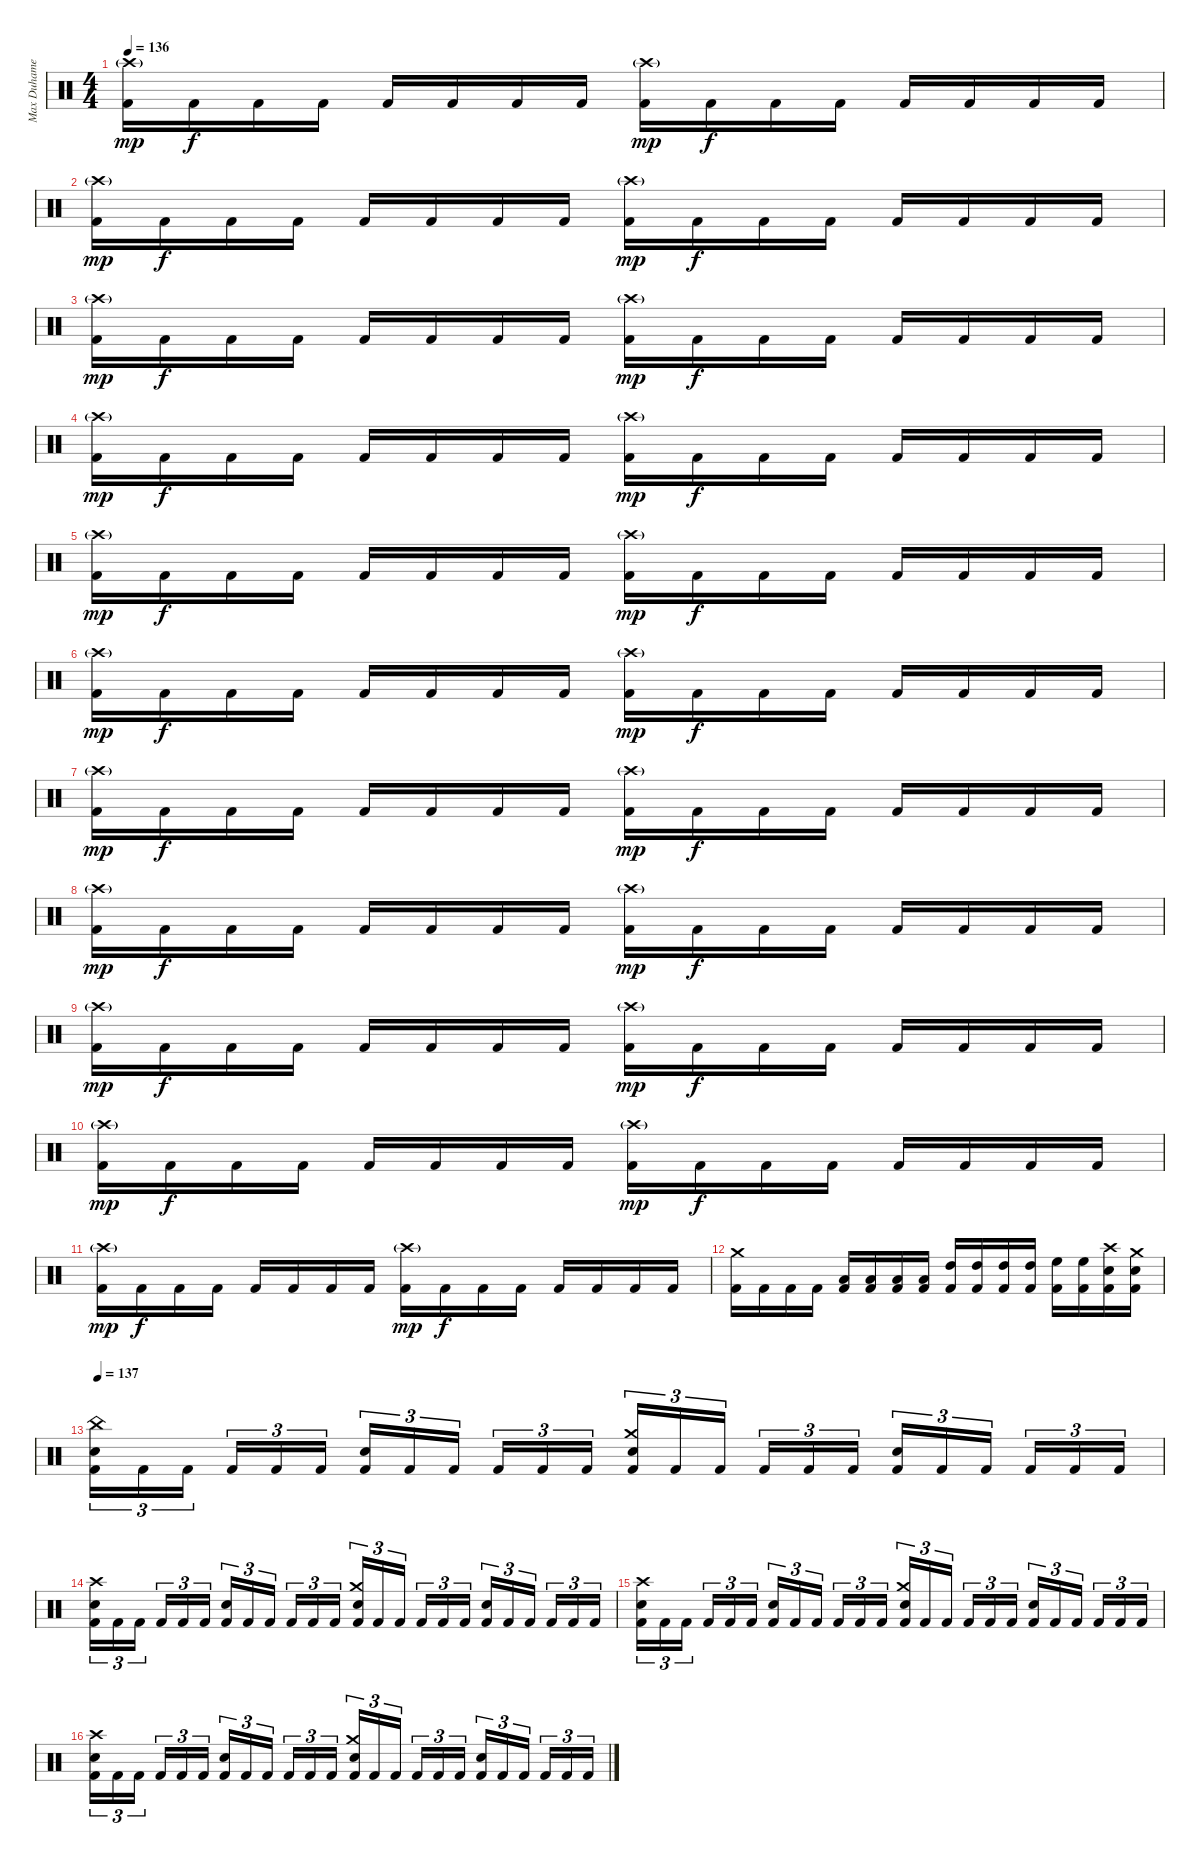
\track ("Max Duhamel (Drums)" "Max Duhame") {instrument percussion}
\staff {score}
\articulation defaults
\ts (4 4)
\tempo 136
\clef neutral
\ks c
("Crash high (hit)"{g} "Kick (hit) 2").16{dy mp} "Kick (hit) 2".16{dy f} "Kick (hit) 2".16 "Kick (hit) 2".16 "Kick (hit) 2".16 "Kick (hit) 2".16 "Kick (hit) 2".16 "Kick (hit) 2".16 ("Crash high (hit)"{g} "Kick (hit) 2").16{dy mp} "Kick (hit) 2".16{dy f} "Kick (hit) 2".16 "Kick (hit) 2".16 "Kick (hit) 2".16 "Kick (hit) 2".16 "Kick (hit) 2".16 "Kick (hit) 2".16 |
("Crash high (hit)"{g} "Kick (hit) 2").16{dy mp} "Kick (hit) 2".16{dy f} "Kick (hit) 2".16 "Kick (hit) 2".16 "Kick (hit) 2".16 "Kick (hit) 2".16 "Kick (hit) 2".16 "Kick (hit) 2".16 ("Crash high (hit)"{g} "Kick (hit) 2").16{dy mp} "Kick (hit) 2".16{dy f} "Kick (hit) 2".16 "Kick (hit) 2".16 "Kick (hit) 2".16 "Kick (hit) 2".16 "Kick (hit) 2".16 "Kick (hit) 2".16 |
("Crash high (hit)"{g} "Kick (hit) 2").16{dy mp} "Kick (hit) 2".16{dy f} "Kick (hit) 2".16 "Kick (hit) 2".16 "Kick (hit) 2".16 "Kick (hit) 2".16 "Kick (hit) 2".16 "Kick (hit) 2".16 ("Crash high (hit)"{g} "Kick (hit) 2").16{dy mp} "Kick (hit) 2".16{dy f} "Kick (hit) 2".16 "Kick (hit) 2".16 "Kick (hit) 2".16 "Kick (hit) 2".16 "Kick (hit) 2".16 "Kick (hit) 2".16 |
("Crash high (hit)"{g} "Kick (hit) 2").16{dy mp} "Kick (hit) 2".16{dy f} "Kick (hit) 2".16 "Kick (hit) 2".16 "Kick (hit) 2".16 "Kick (hit) 2".16 "Kick (hit) 2".16 "Kick (hit) 2".16 ("Crash high (hit)"{g} "Kick (hit) 2").16{dy mp} "Kick (hit) 2".16{dy f} "Kick (hit) 2".16 "Kick (hit) 2".16 "Kick (hit) 2".16 "Kick (hit) 2".16 "Kick (hit) 2".16 "Kick (hit) 2".16 |
("Crash high (hit)"{g} "Kick (hit) 2").16{dy mp} "Kick (hit) 2".16{dy f} "Kick (hit) 2".16 "Kick (hit) 2".16 "Kick (hit) 2".16 "Kick (hit) 2".16 "Kick (hit) 2".16 "Kick (hit) 2".16 ("Crash high (hit)"{g} "Kick (hit) 2").16{dy mp} "Kick (hit) 2".16{dy f} "Kick (hit) 2".16 "Kick (hit) 2".16 "Kick (hit) 2".16 "Kick (hit) 2".16 "Kick (hit) 2".16 "Kick (hit) 2".16 |
("Crash high (hit)"{g} "Kick (hit) 2").16{dy mp} "Kick (hit) 2".16{dy f} "Kick (hit) 2".16 "Kick (hit) 2".16 "Kick (hit) 2".16 "Kick (hit) 2".16 "Kick (hit) 2".16 "Kick (hit) 2".16 ("Crash high (hit)"{g} "Kick (hit) 2").16{dy mp} "Kick (hit) 2".16{dy f} "Kick (hit) 2".16 "Kick (hit) 2".16 "Kick (hit) 2".16 "Kick (hit) 2".16 "Kick (hit) 2".16 "Kick (hit) 2".16 |
("Crash high (hit)"{g} "Kick (hit) 2").16{dy mp} "Kick (hit) 2".16{dy f} "Kick (hit) 2".16 "Kick (hit) 2".16 "Kick (hit) 2".16 "Kick (hit) 2".16 "Kick (hit) 2".16 "Kick (hit) 2".16 ("Crash high (hit)"{g} "Kick (hit) 2").16{dy mp} "Kick (hit) 2".16{dy f} "Kick (hit) 2".16 "Kick (hit) 2".16 "Kick (hit) 2".16 "Kick (hit) 2".16 "Kick (hit) 2".16 "Kick (hit) 2".16 |
("Crash high (hit)"{g} "Kick (hit) 2").16{dy mp} "Kick (hit) 2".16{dy f} "Kick (hit) 2".16 "Kick (hit) 2".16 "Kick (hit) 2".16 "Kick (hit) 2".16 "Kick (hit) 2".16 "Kick (hit) 2".16 ("Crash high (hit)"{g} "Kick (hit) 2").16{dy mp} "Kick (hit) 2".16{dy f} "Kick (hit) 2".16 "Kick (hit) 2".16 "Kick (hit) 2".16 "Kick (hit) 2".16 "Kick (hit) 2".16 "Kick (hit) 2".16 |
("Crash high (hit)"{g} "Kick (hit) 2").16{dy mp} "Kick (hit) 2".16{dy f} "Kick (hit) 2".16 "Kick (hit) 2".16 "Kick (hit) 2".16 "Kick (hit) 2".16 "Kick (hit) 2".16 "Kick (hit) 2".16 ("Crash high (hit)"{g} "Kick (hit) 2").16{dy mp} "Kick (hit) 2".16{dy f} "Kick (hit) 2".16 "Kick (hit) 2".16 "Kick (hit) 2".16 "Kick (hit) 2".16 "Kick (hit) 2".16 "Kick (hit) 2".16 |
("Crash high (hit)"{g} "Kick (hit) 2").16{dy mp} "Kick (hit) 2".16{dy f} "Kick (hit) 2".16 "Kick (hit) 2".16 "Kick (hit) 2".16 "Kick (hit) 2".16 "Kick (hit) 2".16 "Kick (hit) 2".16 ("Crash high (hit)"{g} "Kick (hit) 2").16{dy mp} "Kick (hit) 2".16{dy f} "Kick (hit) 2".16 "Kick (hit) 2".16 "Kick (hit) 2".16 "Kick (hit) 2".16 "Kick (hit) 2".16 "Kick (hit) 2".16 |
("Crash high (hit)"{g} "Kick (hit) 2").16{dy mp} "Kick (hit) 2".16{dy f} "Kick (hit) 2".16 "Kick (hit) 2".16 "Kick (hit) 2".16 "Kick (hit) 2".16 "Kick (hit) 2".16 "Kick (hit) 2".16 ("Crash high (hit)"{g} "Kick (hit) 2").16{dy mp} "Kick (hit) 2".16{dy f} "Kick (hit) 2".16 "Kick (hit) 2".16 "Kick (hit) 2".16 "Kick (hit) 2".16 "Kick (hit) 2".16 "Kick (hit) 2".16 |
("Crash medium (hit)" "Kick (hit) 2").16 "Kick (hit) 2".16 "Kick (hit) 2".16 "Kick (hit) 2".16 ("Low Tom (hit)" "Kick (hit) 2").16 ("Low Tom (hit)" "Kick (hit) 2").16 ("Low Tom (hit)" "Kick (hit) 2").16 ("Low Tom (hit)" "Kick (hit) 2").16 ("High Tom (hit)" "Kick (hit) 2").16 ("High Tom (hit)" "Kick (hit) 2").16 ("High Tom (hit)" "Kick (hit) 2").16 ("High Tom (hit)" "Kick (hit) 2").16 ("High Floor Tom (hit)" "Kick (hit) 2").16 ("High Floor Tom (hit)" "Kick (hit) 2").16 ("Crash high (hit)" "Electric Snare (hit)" "Kick (hit) 2").16 ("Crash medium (hit)" "Electric Snare (hit)" "Kick (hit) 2").16 |
\tempo 137
("China (hit)" "Electric Snare (hit)" "Kick (hit) 2").16{tu (3 2)} "Kick (hit) 2".16{tu (3 2)} "Kick (hit) 2".16{tu (3 2) beam splitsecondary} "Kick (hit) 2".16{tu (3 2)} "Kick (hit) 2".16{tu (3 2)} "Kick (hit) 2".16{tu (3 2)} ("Electric Snare (hit)" "Kick (hit) 2").16{tu (3 2)} "Kick (hit) 2".16{tu (3 2)} "Kick (hit) 2".16{tu (3 2) beam splitsecondary} "Kick (hit) 2".16{tu (3 2)} "Kick (hit) 2".16{tu (3 2)} "Kick (hit) 2".16{tu (3 2)} ("Crash medium (hit)" "Electric Snare (hit)" "Kick (hit) 2").16{tu (3 2)} "Kick (hit) 2".16{tu (3 2)} "Kick (hit) 2".16{tu (3 2) beam splitsecondary} "Kick (hit) 2".16{tu (3 2)} "Kick (hit) 2".16{tu (3 2)} "Kick (hit) 2".16{tu (3 2)} ("Electric Snare (hit)" "Kick (hit) 2").16{tu (3 2)} "Kick (hit) 2".16{tu (3 2)} "Kick (hit) 2".16{tu (3 2) beam splitsecondary} "Kick (hit) 2".16{tu (3 2)} "Kick (hit) 2".16{tu (3 2)} "Kick (hit) 2".16{tu (3 2)} |
("Crash high (hit)" "Electric Snare (hit)" "Kick (hit) 2").16{tu (3 2)} "Kick (hit) 2".16{tu (3 2)} "Kick (hit) 2".16{tu (3 2) beam splitsecondary} "Kick (hit) 2".16{tu (3 2)} "Kick (hit) 2".16{tu (3 2)} "Kick (hit) 2".16{tu (3 2)} ("Electric Snare (hit)" "Kick (hit) 2").16{tu (3 2)} "Kick (hit) 2".16{tu (3 2)} "Kick (hit) 2".16{tu (3 2) beam splitsecondary} "Kick (hit) 2".16{tu (3 2)} "Kick (hit) 2".16{tu (3 2)} "Kick (hit) 2".16{tu (3 2)} ("Crash medium (hit)" "Electric Snare (hit)" "Kick (hit) 2").16{tu (3 2)} "Kick (hit) 2".16{tu (3 2)} "Kick (hit) 2".16{tu (3 2) beam splitsecondary} "Kick (hit) 2".16{tu (3 2)} "Kick (hit) 2".16{tu (3 2)} "Kick (hit) 2".16{tu (3 2)} ("Electric Snare (hit)" "Kick (hit) 2").16{tu (3 2)} "Kick (hit) 2".16{tu (3 2)} "Kick (hit) 2".16{tu (3 2) beam splitsecondary} "Kick (hit) 2".16{tu (3 2)} "Kick (hit) 2".16{tu (3 2)} "Kick (hit) 2".16{tu (3 2)} |
("Crash high (hit)" "Electric Snare (hit)" "Kick (hit) 2").16{tu (3 2)} "Kick (hit) 2".16{tu (3 2)} "Kick (hit) 2".16{tu (3 2) beam splitsecondary} "Kick (hit) 2".16{tu (3 2)} "Kick (hit) 2".16{tu (3 2)} "Kick (hit) 2".16{tu (3 2)} ("Electric Snare (hit)" "Kick (hit) 2").16{tu (3 2)} "Kick (hit) 2".16{tu (3 2)} "Kick (hit) 2".16{tu (3 2) beam splitsecondary} "Kick (hit) 2".16{tu (3 2)} "Kick (hit) 2".16{tu (3 2)} "Kick (hit) 2".16{tu (3 2)} ("Crash medium (hit)" "Electric Snare (hit)" "Kick (hit) 2").16{tu (3 2)} "Kick (hit) 2".16{tu (3 2)} "Kick (hit) 2".16{tu (3 2) beam splitsecondary} "Kick (hit) 2".16{tu (3 2)} "Kick (hit) 2".16{tu (3 2)} "Kick (hit) 2".16{tu (3 2)} ("Electric Snare (hit)" "Kick (hit) 2").16{tu (3 2)} "Kick (hit) 2".16{tu (3 2)} "Kick (hit) 2".16{tu (3 2) beam splitsecondary} "Kick (hit) 2".16{tu (3 2)} "Kick (hit) 2".16{tu (3 2)} "Kick (hit) 2".16{tu (3 2)} |
("Crash high (hit)" "Electric Snare (hit)" "Kick (hit) 2").16{tu (3 2)} "Kick (hit) 2".16{tu (3 2)} "Kick (hit) 2".16{tu (3 2) beam splitsecondary} "Kick (hit) 2".16{tu (3 2)} "Kick (hit) 2".16{tu (3 2)} "Kick (hit) 2".16{tu (3 2)} ("Electric Snare (hit)" "Kick (hit) 2").16{tu (3 2)} "Kick (hit) 2".16{tu (3 2)} "Kick (hit) 2".16{tu (3 2) beam splitsecondary} "Kick (hit) 2".16{tu (3 2)} "Kick (hit) 2".16{tu (3 2)} "Kick (hit) 2".16{tu (3 2)} ("Crash medium (hit)" "Electric Snare (hit)" "Kick (hit) 2").16{tu (3 2)} "Kick (hit) 2".16{tu (3 2)} "Kick (hit) 2".16{tu (3 2) beam splitsecondary} "Kick (hit) 2".16{tu (3 2)} "Kick (hit) 2".16{tu (3 2)} "Kick (hit) 2".16{tu (3 2)} ("Electric Snare (hit)" "Kick (hit) 2").16{tu (3 2)} "Kick (hit) 2".16{tu (3 2)} "Kick (hit) 2".16{tu (3 2) beam splitsecondary} "Kick (hit) 2".16{tu (3 2)} "Kick (hit) 2".16{tu (3 2)} "Kick (hit) 2".16{tu (3 2)}
